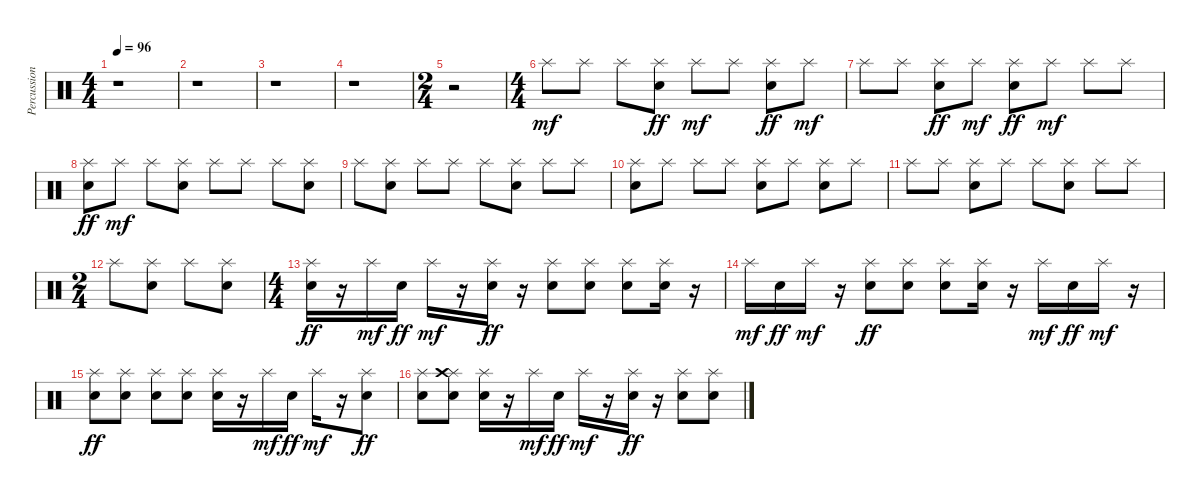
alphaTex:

\track ("Percussions" "Percussion") {instrument percussion}
\staff {score}
\articulation defaults
\ts (4 4)
\tempo 96
\clef neutral
\ks c
r.1{dy mf} |
r.1 |
r.1 |
r.1 |
\ts (2 4)
r.2 |
\ts (4 4)
"Splash (hit)".8 "Splash (hit)".8 "Splash (hit)".8 ("Splash (hit)" "Electric Snare (hit)").8{dy ff} "Splash (hit)".8{dy mf} "Splash (hit)".8 ("Splash (hit)" "Electric Snare (hit)").8{dy ff} "Splash (hit)".8{dy mf} |
"Splash (hit)".8 "Splash (hit)".8 ("Splash (hit)" "Electric Snare (hit)").8{dy ff} "Splash (hit)".8{dy mf} ("Splash (hit)" "Electric Snare (hit)").8{dy ff} "Splash (hit)".8{dy mf} "Splash (hit)".8 "Splash (hit)".8 |
("Splash (hit)" "Electric Snare (hit)").8{dy ff} "Splash (hit)".8{dy mf} "Splash (hit)".8 ("Splash (hit)" "Electric Snare (hit)").8 "Splash (hit)".8 "Splash (hit)".8 "Splash (hit)".8 ("Splash (hit)" "Electric Snare (hit)").8 |
"Splash (hit)".8 ("Splash (hit)" "Electric Snare (hit)").8 "Splash (hit)".8 "Splash (hit)".8 "Splash (hit)".8 ("Splash (hit)" "Electric Snare (hit)").8 "Splash (hit)".8 "Splash (hit)".8 |
("Splash (hit)" "Electric Snare (hit)").8 "Splash (hit)".8 "Splash (hit)".8 "Splash (hit)".8 ("Splash (hit)" "Electric Snare (hit)").8 "Splash (hit)".8 ("Splash (hit)" "Electric Snare (hit)").8 "Splash (hit)".8 |
"Splash (hit)".8 "Splash (hit)".8 ("Splash (hit)" "Electric Snare (hit)").8 "Splash (hit)".8 "Splash (hit)".8 ("Splash (hit)" "Electric Snare (hit)").8 "Splash (hit)".8 "Splash (hit)".8 |
\ts (2 4)
"Splash (hit)".8 ("Splash (hit)" "Electric Snare (hit)").8 "Splash (hit)".8 ("Splash (hit)" "Electric Snare (hit)").8 |
\ts (4 4)
("Splash (hit)" "Electric Snare (hit)").16{dy ff} r.16 "Splash (hit)".16{dy mf} "Electric Snare (hit)".16{dy ff} "Splash (hit)".16{dy mf} r.16 ("Splash (hit)" "Electric Snare (hit)").16{dy ff} r.16 ("Splash (hit)" "Electric Snare (hit)").8 ("Splash (hit)" "Electric Snare (hit)").8 ("Splash (hit)" "Electric Snare (hit)").8 ("Splash (hit)" "Electric Snare (hit)").16 r.16 |
"Splash (hit)".16{dy mf} "Electric Snare (hit)".16{dy ff} "Splash (hit)".16{dy mf} r.16 ("Splash (hit)" "Electric Snare (hit)").8{dy ff} ("Splash (hit)" "Electric Snare (hit)").8 ("Splash (hit)" "Electric Snare (hit)").8 ("Splash (hit)" "Electric Snare (hit)").16 r.16 "Splash (hit)".16{dy mf} "Electric Snare (hit)".16{dy ff} "Splash (hit)".16{dy mf} r.16 |
("Splash (hit)" "Electric Snare (hit)").8{dy ff} ("Splash (hit)" "Electric Snare (hit)").8 ("Splash (hit)" "Electric Snare (hit)").8 ("Splash (hit)" "Electric Snare (hit)").8 ("Splash (hit)" "Electric Snare (hit)").16 r.16 "Splash (hit)".16{dy mf} "Electric Snare (hit)".16{dy ff} "Splash (hit)".16{dy mf} r.16 ("Splash (hit)" "Electric Snare (hit)").8{dy ff} |
("Splash (hit)" "Electric Snare (hit)").8 ("Splash (hit)" "Crash high (hit)" "Electric Snare (hit)").8 ("Splash (hit)" "Electric Snare (hit)").16 r.16 "Splash (hit)".16{dy mf} "Electric Snare (hit)".16{dy ff} "Splash (hit)".16{dy mf} r.16 ("Splash (hit)" "Electric Snare (hit)").16{dy ff} r.16 ("Splash (hit)" "Electric Snare (hit)").8 ("Splash (hit)" "Electric Snare (hit)").8
